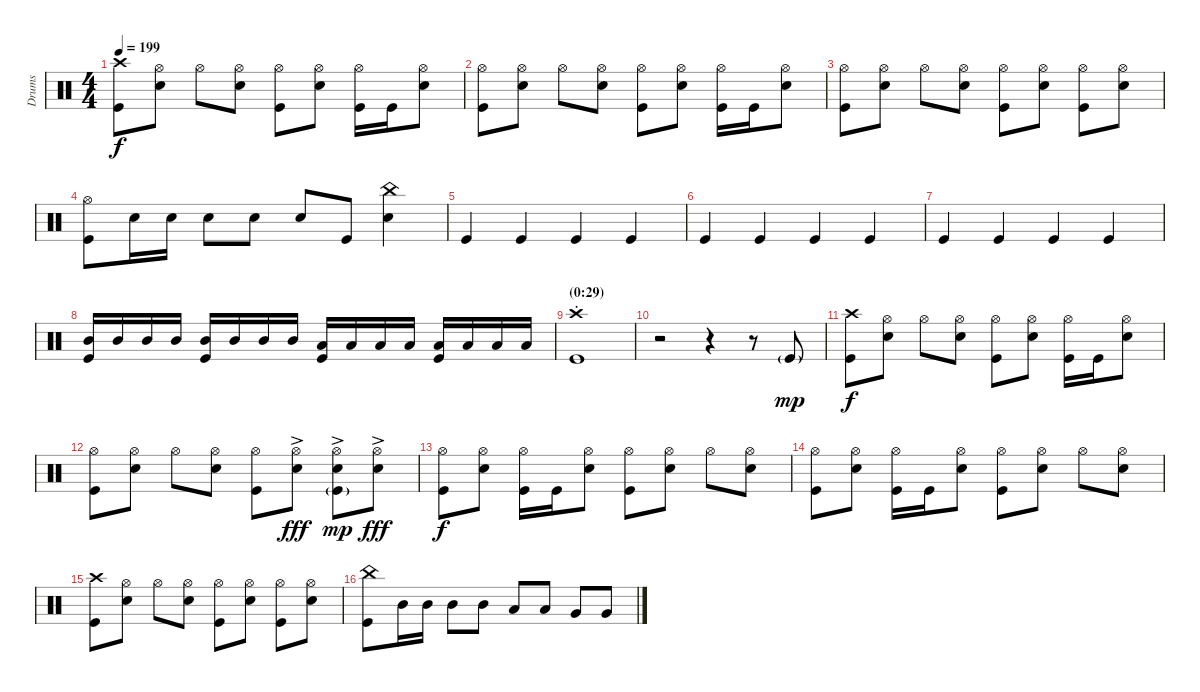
\track ("Drums" "Drums") {instrument percussion}
\staff {score}
\articulation defaults
\ts (4 4)
\tempo 199
\clef neutral
\ks c
("Crash high (hit)" "Kick (hit)").8{dy f} ("Hi-Hat (open)" "Snare (hit) 2").8 "Hi-Hat (open)".8 ("Hi-Hat (open)" "Snare (hit) 2").8 ("Hi-Hat (open)" "Kick (hit)").8 ("Hi-Hat (open)" "Snare (hit) 2").8 ("Hi-Hat (open)" "Kick (hit)").16 "Kick (hit)".16 ("Hi-Hat (open)" "Snare (hit) 2").8 |
("Hi-Hat (open)" "Kick (hit)").8 ("Hi-Hat (open)" "Snare (hit) 2").8 "Hi-Hat (open)".8 ("Hi-Hat (open)" "Snare (hit) 2").8 ("Hi-Hat (open)" "Kick (hit)").8 ("Hi-Hat (open)" "Snare (hit) 2").8 ("Hi-Hat (open)" "Kick (hit)").16 "Kick (hit)".16 ("Hi-Hat (open)" "Snare (hit) 2").8 |
("Hi-Hat (open)" "Kick (hit)").8 ("Hi-Hat (open)" "Snare (hit) 2").8 "Hi-Hat (open)".8 ("Hi-Hat (open)" "Snare (hit) 2").8 ("Hi-Hat (open)" "Kick (hit)").8 ("Hi-Hat (open)" "Snare (hit) 2").8 ("Hi-Hat (open)" "Kick (hit)").8 ("Hi-Hat (open)" "Snare (hit) 2").8 |
("Hi-Hat (open)" "Kick (hit)").8 "Snare (hit) 2".16 "Snare (hit) 2".16 "Snare (hit) 2".8 "Snare (hit) 2".8 "Snare (hit) 2".8 "Kick (hit)".8 ("China (hit)" "Snare (hit) 2").4 |
"Kick (hit)".4 "Kick (hit)".4 "Kick (hit)".4 "Kick (hit)".4 |
"Kick (hit)".4 "Kick (hit)".4 "Kick (hit)".4 "Kick (hit)".4 |
"Kick (hit)".4 "Kick (hit)".4 "Kick (hit)".4 "Kick (hit)".4 |
("Mid Tom (hit)" "Kick (hit)").16 "Mid Tom (hit)".16 "Mid Tom (hit)".16 "Mid Tom (hit)".16 ("Mid Tom (hit)" "Kick (hit)").16 "Mid Tom (hit)".16 "Mid Tom (hit)".16 "Mid Tom (hit)".16 ("Low Tom (hit)" "Kick (hit)").16 "Low Tom (hit)".16 "Low Tom (hit)".16 "Low Tom (hit)".16 ("Low Tom (hit)" "Kick (hit)").16 "Low Tom (hit)".16 "Low Tom (hit)".16 "Low Tom (hit)".16 |
\section ("" "(0:29)")
("Crash high (hit)"{st} "Kick (hit)").1 |
r.2 r.4 r.8 "Kick (hit)"{g}.8{dy mp} |
("Crash high (hit)" "Kick (hit)").8{dy f} ("Hi-Hat (open)" "Snare (hit) 2").8 "Hi-Hat (open)".8 ("Hi-Hat (open)" "Snare (hit) 2").8 ("Hi-Hat (open)" "Kick (hit)").8 ("Hi-Hat (open)" "Snare (hit) 2").8 ("Hi-Hat (open)" "Kick (hit)").16 "Kick (hit)".16 ("Hi-Hat (open)" "Snare (hit) 2").8 |
("Hi-Hat (open)" "Kick (hit)").8 ("Hi-Hat (open)" "Snare (hit) 2").8 "Hi-Hat (open)".8 ("Hi-Hat (open)" "Snare (hit) 2").8 ("Hi-Hat (open)" "Kick (hit)").8 ("Hi-Hat (open)"{ac} "Snare (hit) 2"{ac}).8{dy fff} ("Hi-Hat (open)"{ac} "Snare (hit) 2"{ac} "Kick (hit)"{g}).8{dy mp} ("Hi-Hat (open)"{ac} "Snare (hit) 2"{ac}).8{dy fff} |
("Hi-Hat (open)" "Kick (hit)").8{dy f} ("Hi-Hat (open)" "Snare (hit) 2").8 ("Hi-Hat (open)" "Kick (hit)").16 "Kick (hit)".16 ("Hi-Hat (open)" "Snare (hit) 2").8 ("Hi-Hat (open)" "Kick (hit)").8 ("Hi-Hat (open)" "Snare (hit) 2").8 "Hi-Hat (open)".8 ("Hi-Hat (open)" "Snare (hit) 2").8 |
("Hi-Hat (open)" "Kick (hit)").8 ("Hi-Hat (open)" "Snare (hit) 2").8 ("Hi-Hat (open)" "Kick (hit)").16 "Kick (hit)".16 ("Hi-Hat (open)" "Snare (hit) 2").8 ("Hi-Hat (open)" "Kick (hit)").8 ("Hi-Hat (open)" "Snare (hit) 2").8 "Hi-Hat (open)".8 ("Hi-Hat (open)" "Snare (hit) 2").8 |
("Crash high (hit)" "Kick (hit)").8 ("Hi-Hat (open)" "Snare (hit) 2").8 "Hi-Hat (open)".8 ("Hi-Hat (open)" "Snare (hit) 2").8 ("Hi-Hat (open)" "Kick (hit)").8 ("Hi-Hat (open)" "Snare (hit) 2").8 ("Hi-Hat (open)" "Kick (hit)").8 ("Hi-Hat (open)" "Snare (hit) 2").8 |
("China (hit)" "Kick (hit)").8 "Mid Tom (hit)".16 "Mid Tom (hit)".16 "Mid Tom (hit)".8 "Mid Tom (hit)".8 "Low Tom (hit)".8 "Low Tom (hit)".8 "Very Low Tom (hit)".8 "Very Low Tom (hit)".8
